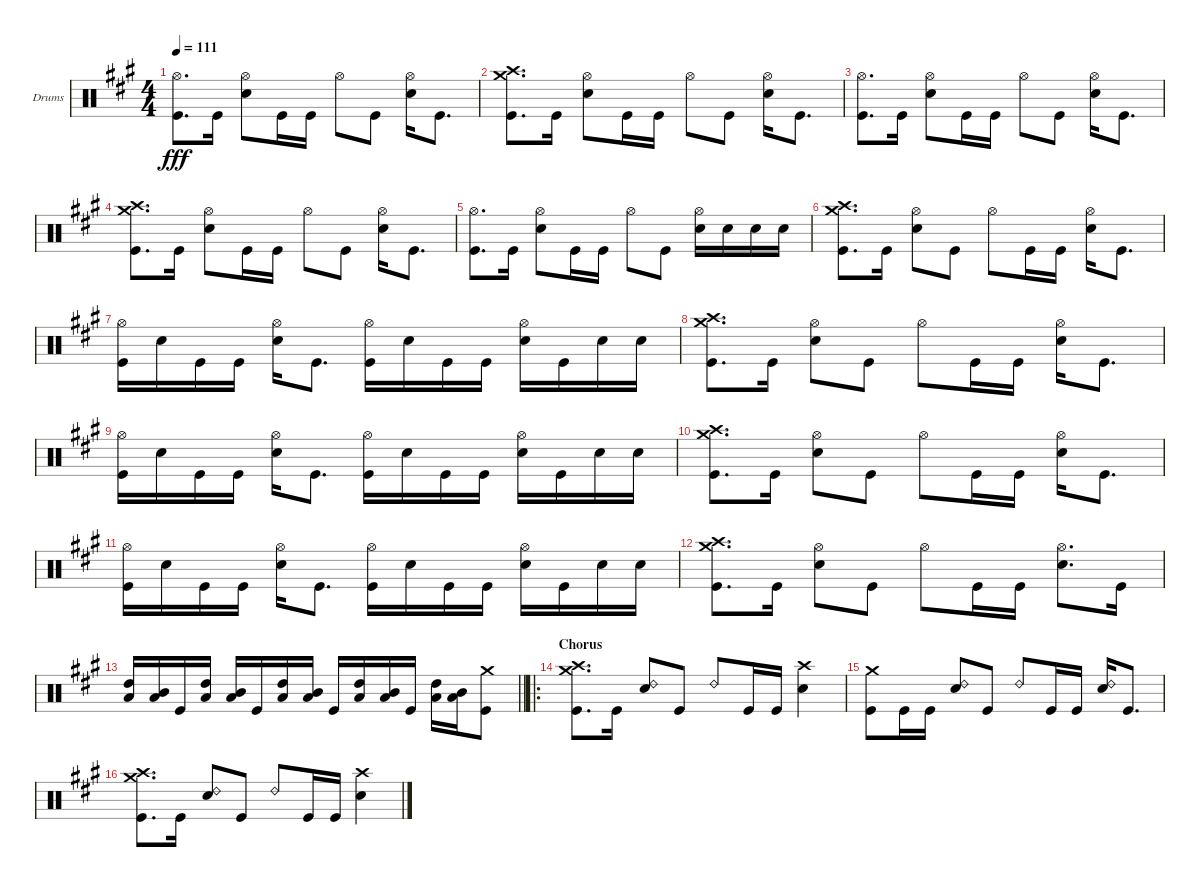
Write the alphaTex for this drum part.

\bracketExtendMode groupsimilarinstruments
\firstSystemTrackNameOrientation horizontal
\otherSystemsTrackNameOrientation horizontal
\track ("Drumkit" "Drums") {instrument percussion}
\staff {score}
\articulation defaults
\ts (4 4)
\tempo 111
\clef neutral
\scale
0.333333
\ks a
("Hi-Hat (open)" "Kick (hit)").8{d dy fff} "Kick (hit)".16 ("Hi-Hat (open)" "Snare (hit) 2").8 "Kick (hit)".16 "Kick (hit)".16 "Hi-Hat (open)".8 "Kick (hit)".8 ("Hi-Hat (open)" "Snare (hit) 2").16 "Kick (hit)".8{d} |
\scale
0.333333 ("Crash high (hit)" "Crash medium (hit)" "Kick (hit)").8{d} "Kick (hit)".16 ("Hi-Hat (open)" "Snare (hit) 2").8 "Kick (hit)".16 "Kick (hit)".16 "Hi-Hat (open)".8 "Kick (hit)".8 ("Hi-Hat (open)" "Snare (hit) 2").16 "Kick (hit)".8{d} |
\scale
0.322862 ("Hi-Hat (open)" "Kick (hit)").8{d} "Kick (hit)".16 ("Hi-Hat (open)" "Snare (hit) 2").8 "Kick (hit)".16 "Kick (hit)".16 "Hi-Hat (open)".8 "Kick (hit)".8 ("Hi-Hat (open)" "Snare (hit) 2").16 "Kick (hit)".8{d} |
\scale
0.322862 ("Crash high (hit)" "Crash medium (hit)" "Kick (hit)").8{d} "Kick (hit)".16 ("Hi-Hat (open)" "Snare (hit) 2").8 "Kick (hit)".16 "Kick (hit)".16 "Hi-Hat (open)".8 "Kick (hit)".8 ("Hi-Hat (open)" "Snare (hit) 2").16 "Kick (hit)".8{d} |
\scale
0.354276 ("Hi-Hat (open)" "Kick (hit)").8{d} "Kick (hit)".16 ("Hi-Hat (open)" "Snare (hit) 2").8 "Kick (hit)".16 "Kick (hit)".16 "Hi-Hat (open)".8 "Kick (hit)".8 ("Hi-Hat (open)" "Snare (hit) 2").16 "Snare (hit) 2".16 "Snare (hit) 2".16 "Snare (hit) 2".16 |
\scale
0.308333 ("Crash high (hit)" "Crash medium (hit)" "Kick (hit)").8{d} "Kick (hit)".16 ("Hi-Hat (open)" "Snare (hit) 2").8 "Kick (hit)".8 "Hi-Hat (open)".8 "Kick (hit)".16 "Kick (hit)".16 ("Hi-Hat (open)" "Snare (hit) 2").16 "Kick (hit)".8{d} |
\scale
0.383333 ("Hi-Hat (open)" "Kick (hit)").16 "Snare (hit) 2".16 "Kick (hit)".16 "Kick (hit)".16 ("Hi-Hat (open)" "Snare (hit) 2").16 "Kick (hit)".8{d} ("Hi-Hat (open)" "Kick (hit)").16 "Snare (hit) 2".16 "Kick (hit)".16 "Kick (hit)".16 ("Hi-Hat (open)" "Snare (hit) 2").16 "Kick (hit)".16 "Snare (hit) 2".16 "Snare (hit) 2".16 |
\scale
0.308333 ("Crash high (hit)" "Crash medium (hit)" "Kick (hit)").8{d} "Kick (hit)".16 ("Hi-Hat (open)" "Snare (hit) 2").8 "Kick (hit)".8 "Hi-Hat (open)".8 "Kick (hit)".16 "Kick (hit)".16 ("Hi-Hat (open)" "Snare (hit) 2").16 "Kick (hit)".8{d} |
\scale
0.356589 ("Hi-Hat (open)" "Kick (hit)").16 "Snare (hit) 2".16 "Kick (hit)".16 "Kick (hit)".16 ("Hi-Hat (open)" "Snare (hit) 2").16 "Kick (hit)".8{d} ("Hi-Hat (open)" "Kick (hit)").16 "Snare (hit) 2".16 "Kick (hit)".16 "Kick (hit)".16 ("Hi-Hat (open)" "Snare (hit) 2").16 "Kick (hit)".16 "Snare (hit) 2".16 "Snare (hit) 2".16 |
\scale
0.286822 ("Crash high (hit)" "Crash medium (hit)" "Kick (hit)").8{d} "Kick (hit)".16 ("Hi-Hat (open)" "Snare (hit) 2").8 "Kick (hit)".8 "Hi-Hat (open)".8 "Kick (hit)".16 "Kick (hit)".16 ("Hi-Hat (open)" "Snare (hit) 2").16 "Kick (hit)".8{d} |
\scale
0.356589 ("Hi-Hat (open)" "Kick (hit)").16 "Snare (hit) 2".16 "Kick (hit)".16 "Kick (hit)".16 ("Hi-Hat (open)" "Snare (hit) 2").16 "Kick (hit)".8{d} ("Hi-Hat (open)" "Kick (hit)").16 "Snare (hit) 2".16 "Kick (hit)".16 "Kick (hit)".16 ("Hi-Hat (open)" "Snare (hit) 2").16 "Kick (hit)".16 "Snare (hit) 2".16 "Snare (hit) 2".16 |
\scale
0.289063 ("Crash high (hit)" "Crash medium (hit)" "Kick (hit)").8{d} "Kick (hit)".16 ("Hi-Hat (open)" "Snare (hit) 2").8 "Kick (hit)".8 "Hi-Hat (open)".8 "Kick (hit)".16 "Kick (hit)".16 ("Hi-Hat (open)" "Snare (hit) 2").8{d} "Kick (hit)".16 |
\scale
0.41875
\barLineRight lightlight
("Low Tom (hit)" "High Tom (hit)").16 ("Low Tom (hit)" "Mid Tom (hit)").16 "Kick (hit)".16 ("Low Tom (hit)" "High Tom (hit)").16 ("Low Tom (hit)" "Mid Tom (hit)").16 "Kick (hit)".16 ("Low Tom (hit)" "High Tom (hit)").16 ("Low Tom (hit)" "Mid Tom (hit)").16 "Kick (hit)".16 ("Low Tom (hit)" "High Tom (hit)").16 ("Low Tom (hit)" "Mid Tom (hit)").16 "Kick (hit)".16 ("Low Tom (hit)" "High Tom (hit)").16 ("Low Tom (hit)" "Mid Tom (hit)").16 ("Crash medium (hit)" "Kick (hit)").8 |
\ro
\section ("" "Chorus")
\scale
0.292187 ("Crash high (hit)" "Crash medium (hit)" "Kick (hit)").8{d} "Kick (hit)".16 ("Snare (hit) 2" "Ride (bell) 2").8 "Kick (hit)".8 "Ride (bell) 2".8 "Kick (hit)".16 "Kick (hit)".16 ("Crash high (hit)" "Snare (hit) 2").4 |
\scale
0.344583 ("Crash medium (hit)" "Kick (hit)").8 "Kick (hit)".16 "Kick (hit)".16 ("Snare (hit) 2" "Ride (bell) 2").8 "Kick (hit)".8 "Ride (bell) 2".8 "Kick (hit)".16 "Kick (hit)".16 ("Snare (hit) 2" "Ride (bell) 2").16 "Kick (hit)".8{d} |
\scale
0.310835 ("Crash high (hit)" "Crash medium (hit)" "Kick (hit)").8{d} "Kick (hit)".16 ("Snare (hit) 2" "Ride (bell) 2").8 "Kick (hit)".8 "Ride (bell) 2".8 "Kick (hit)".16 "Kick (hit)".16 ("Crash high (hit)" "Snare (hit) 2").4
